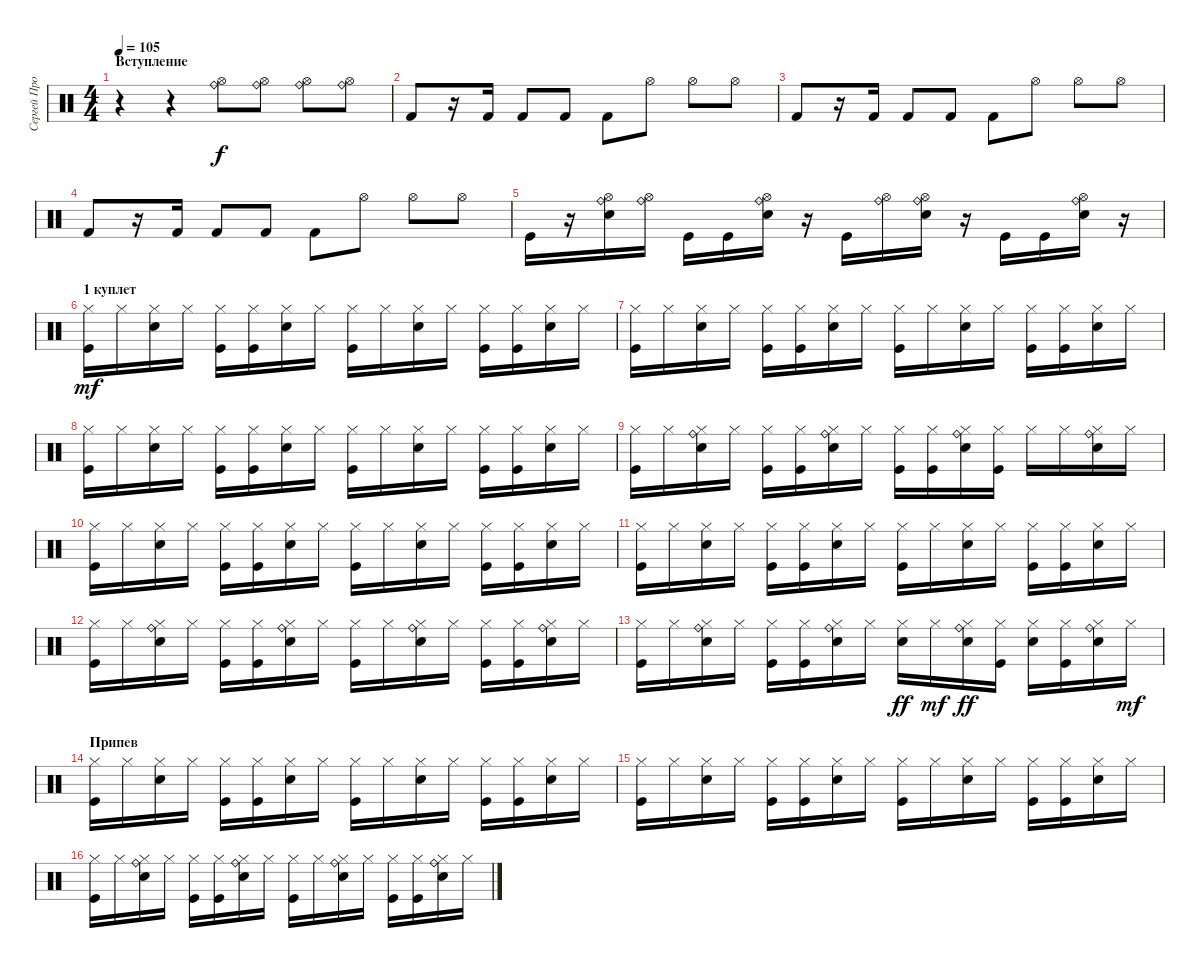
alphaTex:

\track ("Сергей Прокофьев" "Сергей Про") {instrument percussion}
\staff {score}
\articulation defaults
\ts (4 4)
\section ("" "Вступление")
\tempo 105
\clef neutral
\ks c
r.4{dy f} r.4 ("Hi-Hat (open)" "Ride (bell)").8 ("Hi-Hat (open)" "Ride (bell)").8 ("Hi-Hat (open)" "Ride (bell)").8 ("Hi-Hat (open)" "Ride (bell)").8 |
"Kick (hit) 2".8 r.16 "Kick (hit) 2".16 "Kick (hit) 2".8 "Kick (hit) 2".8 "Kick (hit) 2".8 "Hi-Hat (open)".8 "Hi-Hat (open)".8 "Hi-Hat (open)".8 |
"Kick (hit) 2".8 r.16 "Kick (hit) 2".16 "Kick (hit) 2".8 "Kick (hit) 2".8 "Kick (hit) 2".8 "Hi-Hat (open)".8 "Hi-Hat (open)".8 "Hi-Hat (open)".8 |
"Kick (hit) 2".8 r.16 "Kick (hit) 2".16 "Kick (hit) 2".8 "Kick (hit) 2".8 "Kick (hit) 2".8 "Hi-Hat (open)".8 "Hi-Hat (open)".8 "Hi-Hat (open)".8 |
"Kick (hit)".16 r.16 ("Hi-Hat (open)" "Snare (hit) 2" "Ride (bell)").16 ("Hi-Hat (open)" "Ride (bell)").16 "Kick (hit)".16 "Kick (hit)".16 ("Hi-Hat (open)" "Snare (hit) 2" "Ride (bell)").16 r.16 "Kick (hit)".16 ("Hi-Hat (open)" "Ride (bell)").16 ("Hi-Hat (open)" "Snare (hit) 2" "Ride (bell)").16 r.16 "Kick (hit)".16 "Kick (hit)".16 ("Hi-Hat (open)" "Snare (hit) 2" "Ride (bell)").16 r.16 |
\section ("" "1 куплет")
("Hi-Hat (closed)" "Kick (hit)").16{dy mf} "Hi-Hat (closed)".16 ("Hi-Hat (closed)" "Snare (hit) 2").16 "Hi-Hat (closed)".16 ("Hi-Hat (closed)" "Kick (hit)").16 ("Hi-Hat (closed)" "Kick (hit)").16 ("Hi-Hat (closed)" "Snare (hit) 2").16 "Hi-Hat (closed)".16 ("Hi-Hat (closed)" "Kick (hit)").16 "Hi-Hat (closed)".16 ("Hi-Hat (closed)" "Snare (hit) 2").16 "Hi-Hat (closed)".16 ("Hi-Hat (closed)" "Kick (hit)").16 ("Hi-Hat (closed)" "Kick (hit)").16 ("Hi-Hat (closed)" "Snare (hit) 2").16 "Hi-Hat (closed)".16 |
("Hi-Hat (closed)" "Kick (hit)").16 "Hi-Hat (closed)".16 ("Hi-Hat (closed)" "Snare (hit) 2").16 "Hi-Hat (closed)".16 ("Hi-Hat (closed)" "Kick (hit)").16 ("Hi-Hat (closed)" "Kick (hit)").16 ("Hi-Hat (closed)" "Snare (hit) 2").16 "Hi-Hat (closed)".16 ("Hi-Hat (closed)" "Kick (hit)").16 "Hi-Hat (closed)".16 ("Hi-Hat (closed)" "Snare (hit) 2").16 "Hi-Hat (closed)".16 ("Hi-Hat (closed)" "Kick (hit)").16 ("Hi-Hat (closed)" "Kick (hit)").16 ("Hi-Hat (closed)" "Snare (hit) 2").16 "Hi-Hat (closed)".16 |
("Hi-Hat (closed)" "Kick (hit)").16 "Hi-Hat (closed)".16 ("Hi-Hat (closed)" "Snare (hit) 2").16 "Hi-Hat (closed)".16 ("Hi-Hat (closed)" "Kick (hit)").16 ("Hi-Hat (closed)" "Kick (hit)").16 ("Hi-Hat (closed)" "Snare (hit) 2").16 "Hi-Hat (closed)".16 ("Hi-Hat (closed)" "Kick (hit)").16 "Hi-Hat (closed)".16 ("Hi-Hat (closed)" "Snare (hit) 2").16 "Hi-Hat (closed)".16 ("Hi-Hat (closed)" "Kick (hit)").16 ("Hi-Hat (closed)" "Kick (hit)").16 ("Hi-Hat (closed)" "Snare (hit) 2").16 "Hi-Hat (closed)".16 |
("Hi-Hat (closed)" "Kick (hit)").16 "Hi-Hat (closed)".16 ("Hi-Hat (closed)" "Snare (hit) 2" "Ride (bell)").16 "Hi-Hat (closed)".16 ("Hi-Hat (closed)" "Kick (hit)").16 ("Hi-Hat (closed)" "Kick (hit)").16 ("Hi-Hat (closed)" "Snare (hit) 2" "Ride (bell)").16 "Hi-Hat (closed)".16 ("Hi-Hat (closed)" "Kick (hit)").16 ("Hi-Hat (closed)" "Kick (hit)").16 ("Hi-Hat (closed)" "Snare (hit) 2" "Ride (bell)").16 ("Hi-Hat (closed)" "Kick (hit)").16 "Hi-Hat (closed)".16 "Hi-Hat (closed)".16 ("Hi-Hat (closed)" "Snare (hit) 2" "Ride (bell)").16 "Hi-Hat (closed)".16 |
("Hi-Hat (closed)" "Kick (hit)").16 "Hi-Hat (closed)".16 ("Hi-Hat (closed)" "Snare (hit) 2").16 "Hi-Hat (closed)".16 ("Hi-Hat (closed)" "Kick (hit)").16 ("Hi-Hat (closed)" "Kick (hit)").16 ("Hi-Hat (closed)" "Snare (hit) 2").16 "Hi-Hat (closed)".16 ("Hi-Hat (closed)" "Kick (hit)").16 "Hi-Hat (closed)".16 ("Hi-Hat (closed)" "Snare (hit) 2").16 "Hi-Hat (closed)".16 ("Hi-Hat (closed)" "Kick (hit)").16 ("Hi-Hat (closed)" "Kick (hit)").16 ("Hi-Hat (closed)" "Snare (hit) 2").16 "Hi-Hat (closed)".16 |
("Hi-Hat (closed)" "Kick (hit)").16 "Hi-Hat (closed)".16 ("Hi-Hat (closed)" "Snare (hit) 2").16 "Hi-Hat (closed)".16 ("Hi-Hat (closed)" "Kick (hit)").16 ("Hi-Hat (closed)" "Kick (hit)").16 ("Hi-Hat (closed)" "Snare (hit) 2").16 "Hi-Hat (closed)".16 ("Hi-Hat (closed)" "Kick (hit)").16 "Hi-Hat (closed)".16 ("Hi-Hat (closed)" "Snare (hit) 2").16 "Hi-Hat (closed)".16 ("Hi-Hat (closed)" "Kick (hit)").16 ("Hi-Hat (closed)" "Kick (hit)").16 ("Hi-Hat (closed)" "Snare (hit) 2").16 "Hi-Hat (closed)".16 |
("Hi-Hat (closed)" "Kick (hit)").16 "Hi-Hat (closed)".16 ("Hi-Hat (closed)" "Snare (hit) 2" "Ride (bell)").16 "Hi-Hat (closed)".16 ("Hi-Hat (closed)" "Kick (hit)").16 ("Hi-Hat (closed)" "Kick (hit)").16 ("Hi-Hat (closed)" "Snare (hit) 2" "Ride (bell)").16 "Hi-Hat (closed)".16 ("Hi-Hat (closed)" "Kick (hit)").16 "Hi-Hat (closed)".16 ("Hi-Hat (closed)" "Snare (hit) 2" "Ride (bell)").16 "Hi-Hat (closed)".16 ("Hi-Hat (closed)" "Kick (hit)").16 ("Hi-Hat (closed)" "Kick (hit)").16 ("Hi-Hat (closed)" "Snare (hit) 2" "Ride (bell)").16 "Hi-Hat (closed)".16 |
("Hi-Hat (closed)" "Kick (hit)").16 "Hi-Hat (closed)".16 ("Hi-Hat (closed)" "Snare (hit) 2" "Ride (bell)").16 "Hi-Hat (closed)".16 ("Hi-Hat (closed)" "Kick (hit)").16 ("Hi-Hat (closed)" "Kick (hit)").16 ("Hi-Hat (closed)" "Snare (hit) 2" "Ride (bell)").16 "Hi-Hat (closed)".16 ("Hi-Hat (closed)" "Snare (hit) 2").16{dy ff} "Hi-Hat (closed)".16{dy mf} ("Hi-Hat (closed)" "Snare (hit) 2" "Ride (bell)").16{dy ff} ("Hi-Hat (closed)" "Kick (hit)").16 ("Hi-Hat (closed)" "Snare (hit) 2").16 ("Hi-Hat (closed)" "Kick (hit)").16 ("Hi-Hat (closed)" "Snare (hit) 2" "Ride (bell)").16 "Hi-Hat (closed)".16{dy mf} |
\section ("" "Припев")
("Hi-Hat (closed)" "Kick (hit)").16 "Hi-Hat (closed)".16 ("Hi-Hat (closed)" "Snare (hit) 2").16 "Hi-Hat (closed)".16 ("Hi-Hat (closed)" "Kick (hit)").16 ("Hi-Hat (closed)" "Kick (hit)").16 ("Hi-Hat (closed)" "Snare (hit) 2").16 "Hi-Hat (closed)".16 ("Hi-Hat (closed)" "Kick (hit)").16 "Hi-Hat (closed)".16 ("Hi-Hat (closed)" "Snare (hit) 2").16 "Hi-Hat (closed)".16 ("Hi-Hat (closed)" "Kick (hit)").16 ("Hi-Hat (closed)" "Kick (hit)").16 ("Hi-Hat (closed)" "Snare (hit) 2").16 "Hi-Hat (closed)".16 |
("Hi-Hat (closed)" "Kick (hit)").16 "Hi-Hat (closed)".16 ("Hi-Hat (closed)" "Snare (hit) 2").16 "Hi-Hat (closed)".16 ("Hi-Hat (closed)" "Kick (hit)").16 ("Hi-Hat (closed)" "Kick (hit)").16 ("Hi-Hat (closed)" "Snare (hit) 2").16 "Hi-Hat (closed)".16 ("Hi-Hat (closed)" "Kick (hit)").16 "Hi-Hat (closed)".16 ("Hi-Hat (closed)" "Snare (hit) 2").16 "Hi-Hat (closed)".16 ("Hi-Hat (closed)" "Kick (hit)").16 ("Hi-Hat (closed)" "Kick (hit)").16 ("Hi-Hat (closed)" "Snare (hit) 2").16 "Hi-Hat (closed)".16 |
("Hi-Hat (closed)" "Kick (hit)").16 "Hi-Hat (closed)".16 ("Hi-Hat (closed)" "Snare (hit) 2" "Ride (bell)").16 "Hi-Hat (closed)".16 ("Hi-Hat (closed)" "Kick (hit)").16 ("Hi-Hat (closed)" "Kick (hit)").16 ("Hi-Hat (closed)" "Snare (hit) 2" "Ride (bell)").16 "Hi-Hat (closed)".16 ("Hi-Hat (closed)" "Kick (hit)").16 "Hi-Hat (closed)".16 ("Hi-Hat (closed)" "Snare (hit) 2" "Ride (bell)").16 "Hi-Hat (closed)".16 ("Hi-Hat (closed)" "Kick (hit)").16 ("Hi-Hat (closed)" "Kick (hit)").16 ("Hi-Hat (closed)" "Snare (hit) 2" "Ride (bell)").16 "Hi-Hat (closed)".16
